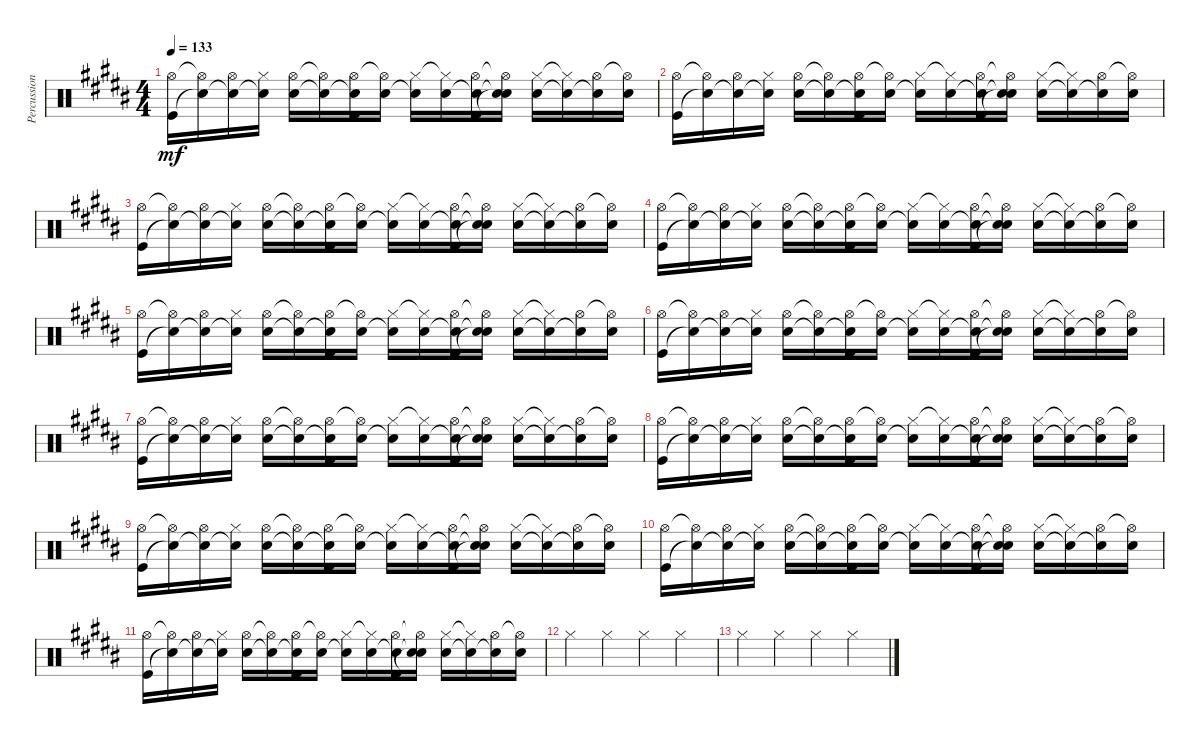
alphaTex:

\track ("Percussion" "Percussion") {instrument percussion}
\staff {score}
\articulation defaults
\ts (4 4)
\tempo 133
\clef neutral
\ks b
("Hi-Hat (open)" "Kick (hit)").16{dy mf} ("Hi-Hat (open)"{t} "Snare (hit)"{t}).16 ("Hi-Hat (open)" "Snare (hit)"{t}).16 ("Hi-Hat (closed)" "Snare (hit)"{t}).16 ("Hi-Hat (open)" "Electric Snare (hit)").16 ("Hi-Hat (open)"{t} "Snare (hit)"{t}).16 ("Hi-Hat (open)" "Snare (hit)"{t} "Kick (hit)").16 ("Hi-Hat (open)"{t} "Electric Snare (hit)").16 ("Hi-Hat (closed)" "Snare (hit)"{t}).16 ("Hi-Hat (closed)"{t} "Electric Snare (hit)").16 ("Hi-Hat (open)" "Electric Snare (hit)"{t} "Kick (hit)").16 ("Hi-Hat (open)"{t} "Snare (hit)"{t} "Snare (hit)"{t}).16 ("Hi-Hat (closed)" "Electric Snare (hit)").16 ("Hi-Hat (closed)"{t} "Snare (hit)"{t}).16 ("Hi-Hat (open)" "Snare (hit)"{t}).16 ("Hi-Hat (open)"{t} "Electric Snare (hit)").16 |
("Hi-Hat (open)" "Kick (hit)").16 ("Hi-Hat (open)"{t} "Snare (hit)"{t}).16 ("Hi-Hat (open)" "Snare (hit)"{t}).16 ("Hi-Hat (closed)" "Snare (hit)"{t}).16 ("Hi-Hat (open)" "Electric Snare (hit)").16 ("Hi-Hat (open)"{t} "Snare (hit)"{t}).16 ("Hi-Hat (open)" "Snare (hit)"{t} "Kick (hit)").16 ("Hi-Hat (open)"{t} "Electric Snare (hit)").16 ("Hi-Hat (closed)" "Snare (hit)"{t}).16 ("Hi-Hat (closed)"{t} "Electric Snare (hit)").16 ("Hi-Hat (open)" "Electric Snare (hit)"{t} "Kick (hit)").16 ("Hi-Hat (open)"{t} "Snare (hit)"{t} "Snare (hit)"{t}).16 ("Hi-Hat (closed)" "Electric Snare (hit)").16 ("Hi-Hat (closed)"{t} "Snare (hit)"{t}).16 ("Hi-Hat (open)" "Snare (hit)"{t}).16 ("Hi-Hat (open)"{t} "Electric Snare (hit)").16 |
("Hi-Hat (open)" "Kick (hit)").16 ("Hi-Hat (open)"{t} "Snare (hit)"{t}).16 ("Hi-Hat (open)" "Snare (hit)"{t}).16 ("Hi-Hat (closed)" "Snare (hit)"{t}).16 ("Hi-Hat (open)" "Electric Snare (hit)").16 ("Hi-Hat (open)"{t} "Snare (hit)"{t}).16 ("Hi-Hat (open)" "Snare (hit)"{t} "Kick (hit)").16 ("Hi-Hat (open)"{t} "Electric Snare (hit)").16 ("Hi-Hat (closed)" "Snare (hit)"{t}).16 ("Hi-Hat (closed)"{t} "Electric Snare (hit)").16 ("Hi-Hat (open)" "Electric Snare (hit)"{t} "Kick (hit)").16 ("Hi-Hat (open)"{t} "Snare (hit)"{t} "Snare (hit)"{t}).16 ("Hi-Hat (closed)" "Electric Snare (hit)").16 ("Hi-Hat (closed)"{t} "Snare (hit)"{t}).16 ("Hi-Hat (open)" "Snare (hit)"{t}).16 ("Hi-Hat (open)"{t} "Electric Snare (hit)").16 |
("Hi-Hat (open)" "Kick (hit)").16 ("Hi-Hat (open)"{t} "Snare (hit)"{t}).16 ("Hi-Hat (open)" "Snare (hit)"{t}).16 ("Hi-Hat (closed)" "Snare (hit)"{t}).16 ("Hi-Hat (open)" "Electric Snare (hit)").16 ("Hi-Hat (open)"{t} "Snare (hit)"{t}).16 ("Hi-Hat (open)" "Snare (hit)"{t} "Kick (hit)").16 ("Hi-Hat (open)"{t} "Electric Snare (hit)").16 ("Hi-Hat (closed)" "Snare (hit)"{t}).16 ("Hi-Hat (closed)"{t} "Electric Snare (hit)").16 ("Hi-Hat (open)" "Electric Snare (hit)"{t} "Kick (hit)").16 ("Hi-Hat (open)"{t} "Snare (hit)"{t} "Snare (hit)"{t}).16 ("Hi-Hat (closed)" "Electric Snare (hit)").16 ("Hi-Hat (closed)"{t} "Snare (hit)"{t}).16 ("Hi-Hat (open)" "Snare (hit)"{t}).16 ("Hi-Hat (open)"{t} "Electric Snare (hit)").16 |
("Hi-Hat (open)" "Kick (hit)").16 ("Hi-Hat (open)"{t} "Snare (hit)"{t}).16 ("Hi-Hat (open)" "Snare (hit)"{t}).16 ("Hi-Hat (closed)" "Snare (hit)"{t}).16 ("Hi-Hat (open)" "Electric Snare (hit)").16 ("Hi-Hat (open)"{t} "Snare (hit)"{t}).16 ("Hi-Hat (open)" "Snare (hit)"{t} "Kick (hit)").16 ("Hi-Hat (open)"{t} "Electric Snare (hit)").16 ("Hi-Hat (closed)" "Snare (hit)"{t}).16 ("Hi-Hat (closed)"{t} "Electric Snare (hit)").16 ("Hi-Hat (open)" "Electric Snare (hit)"{t} "Kick (hit)").16 ("Hi-Hat (open)"{t} "Snare (hit)"{t} "Snare (hit)"{t}).16 ("Hi-Hat (closed)" "Electric Snare (hit)").16 ("Hi-Hat (closed)"{t} "Snare (hit)"{t}).16 ("Hi-Hat (open)" "Snare (hit)"{t}).16 ("Hi-Hat (open)"{t} "Electric Snare (hit)").16 |
("Hi-Hat (open)" "Kick (hit)").16 ("Hi-Hat (open)"{t} "Snare (hit)"{t}).16 ("Hi-Hat (open)" "Snare (hit)"{t}).16 ("Hi-Hat (closed)" "Snare (hit)"{t}).16 ("Hi-Hat (open)" "Electric Snare (hit)").16 ("Hi-Hat (open)"{t} "Snare (hit)"{t}).16 ("Hi-Hat (open)" "Snare (hit)"{t} "Kick (hit)").16 ("Hi-Hat (open)"{t} "Electric Snare (hit)").16 ("Hi-Hat (closed)" "Snare (hit)"{t}).16 ("Hi-Hat (closed)"{t} "Electric Snare (hit)").16 ("Hi-Hat (open)" "Electric Snare (hit)"{t} "Kick (hit)").16 ("Hi-Hat (open)"{t} "Snare (hit)"{t} "Snare (hit)"{t}).16 ("Hi-Hat (closed)" "Electric Snare (hit)").16 ("Hi-Hat (closed)"{t} "Snare (hit)"{t}).16 ("Hi-Hat (open)" "Snare (hit)"{t}).16 ("Hi-Hat (open)"{t} "Electric Snare (hit)").16 |
("Hi-Hat (open)" "Kick (hit)").16 ("Hi-Hat (open)"{t} "Snare (hit)"{t}).16 ("Hi-Hat (open)" "Snare (hit)"{t}).16 ("Hi-Hat (closed)" "Snare (hit)"{t}).16 ("Hi-Hat (open)" "Electric Snare (hit)").16 ("Hi-Hat (open)"{t} "Snare (hit)"{t}).16 ("Hi-Hat (open)" "Snare (hit)"{t} "Kick (hit)").16 ("Hi-Hat (open)"{t} "Electric Snare (hit)").16 ("Hi-Hat (closed)" "Snare (hit)"{t}).16 ("Hi-Hat (closed)"{t} "Electric Snare (hit)").16 ("Hi-Hat (open)" "Electric Snare (hit)"{t} "Kick (hit)").16 ("Hi-Hat (open)"{t} "Snare (hit)"{t} "Snare (hit)"{t}).16 ("Hi-Hat (closed)" "Electric Snare (hit)").16 ("Hi-Hat (closed)"{t} "Snare (hit)"{t}).16 ("Hi-Hat (open)" "Snare (hit)"{t}).16 ("Hi-Hat (open)"{t} "Electric Snare (hit)").16 |
("Hi-Hat (open)" "Kick (hit)").16 ("Hi-Hat (open)"{t} "Snare (hit)"{t}).16 ("Hi-Hat (open)" "Snare (hit)"{t}).16 ("Hi-Hat (closed)" "Snare (hit)"{t}).16 ("Hi-Hat (open)" "Electric Snare (hit)").16 ("Hi-Hat (open)"{t} "Snare (hit)"{t}).16 ("Hi-Hat (open)" "Snare (hit)"{t} "Kick (hit)").16 ("Hi-Hat (open)"{t} "Electric Snare (hit)").16 ("Hi-Hat (closed)" "Snare (hit)"{t}).16 ("Hi-Hat (closed)"{t} "Electric Snare (hit)").16 ("Hi-Hat (open)" "Electric Snare (hit)"{t} "Kick (hit)").16 ("Hi-Hat (open)"{t} "Snare (hit)"{t} "Snare (hit)"{t}).16 ("Hi-Hat (closed)" "Electric Snare (hit)").16 ("Hi-Hat (closed)"{t} "Snare (hit)"{t}).16 ("Hi-Hat (open)" "Snare (hit)"{t}).16 ("Hi-Hat (open)"{t} "Electric Snare (hit)").16 |
("Hi-Hat (open)" "Kick (hit)").16 ("Hi-Hat (open)"{t} "Snare (hit)"{t}).16 ("Hi-Hat (open)" "Snare (hit)"{t}).16 ("Hi-Hat (closed)" "Snare (hit)"{t}).16 ("Hi-Hat (open)" "Electric Snare (hit)").16 ("Hi-Hat (open)"{t} "Snare (hit)"{t}).16 ("Hi-Hat (open)" "Snare (hit)"{t} "Kick (hit)").16 ("Hi-Hat (open)"{t} "Electric Snare (hit)").16 ("Hi-Hat (closed)" "Snare (hit)"{t}).16 ("Hi-Hat (closed)"{t} "Electric Snare (hit)").16 ("Hi-Hat (open)" "Electric Snare (hit)"{t} "Kick (hit)").16 ("Hi-Hat (open)"{t} "Snare (hit)"{t} "Snare (hit)"{t}).16 ("Hi-Hat (closed)" "Electric Snare (hit)").16 ("Hi-Hat (closed)"{t} "Snare (hit)"{t}).16 ("Hi-Hat (open)" "Snare (hit)"{t}).16 ("Hi-Hat (open)"{t} "Electric Snare (hit)").16 |
("Hi-Hat (open)" "Kick (hit)").16 ("Hi-Hat (open)"{t} "Snare (hit)"{t}).16 ("Hi-Hat (open)" "Snare (hit)"{t}).16 ("Hi-Hat (closed)" "Snare (hit)"{t}).16 ("Hi-Hat (open)" "Electric Snare (hit)").16 ("Hi-Hat (open)"{t} "Snare (hit)"{t}).16 ("Hi-Hat (open)" "Snare (hit)"{t} "Kick (hit)").16 ("Hi-Hat (open)"{t} "Electric Snare (hit)").16 ("Hi-Hat (closed)" "Snare (hit)"{t}).16 ("Hi-Hat (closed)"{t} "Electric Snare (hit)").16 ("Hi-Hat (open)" "Electric Snare (hit)"{t} "Kick (hit)").16 ("Hi-Hat (open)"{t} "Snare (hit)"{t} "Snare (hit)"{t}).16 ("Hi-Hat (closed)" "Electric Snare (hit)").16 ("Hi-Hat (closed)"{t} "Snare (hit)"{t}).16 ("Hi-Hat (open)" "Snare (hit)"{t}).16 ("Hi-Hat (open)"{t} "Electric Snare (hit)").16 |
("Hi-Hat (open)" "Kick (hit)").16 ("Hi-Hat (open)"{t} "Snare (hit)"{t}).16 ("Hi-Hat (open)" "Snare (hit)"{t}).16 ("Hi-Hat (closed)" "Snare (hit)"{t}).16 ("Hi-Hat (open)" "Electric Snare (hit)").16 ("Hi-Hat (open)"{t} "Snare (hit)"{t}).16 ("Hi-Hat (open)" "Snare (hit)"{t} "Kick (hit)").16 ("Hi-Hat (open)"{t} "Electric Snare (hit)").16 ("Hi-Hat (closed)" "Snare (hit)"{t}).16 ("Hi-Hat (closed)"{t} "Electric Snare (hit)").16 ("Hi-Hat (open)" "Electric Snare (hit)"{t} "Kick (hit)").16 ("Hi-Hat (open)"{t} "Snare (hit)"{t} "Snare (hit)"{t}).16 ("Hi-Hat (closed)" "Electric Snare (hit)").16 ("Hi-Hat (closed)"{t} "Snare (hit)"{t}).16 ("Hi-Hat (open)" "Snare (hit)"{t}).16 ("Hi-Hat (open)"{t} "Electric Snare (hit)").16 |
"Hi-Hat (closed)".4 "Hi-Hat (closed)".4 "Hi-Hat (closed)".4 "Hi-Hat (closed)".4 |
"Hi-Hat (closed)".4 "Hi-Hat (closed)".4 "Hi-Hat (closed)".4 "Hi-Hat (closed)".4
